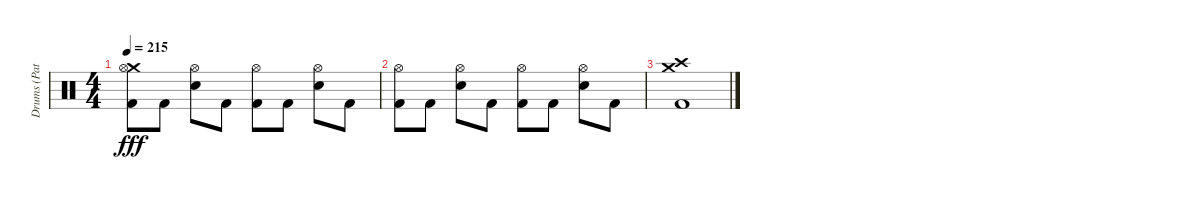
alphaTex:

\track ("Drums (Pat Thetic)" "Drums (Pat") {instrument percussion}
\staff {score}
\articulation defaults
\ts (4 4)
\tempo 215
\clef neutral
\ks c
("Crash medium (hit)" "Hi-Hat (open)" "Kick (hit) 2").8{dy fff} "Kick (hit) 2".8 ("Hi-Hat (open)" "Snare (hit) 2").8 "Kick (hit) 2".8 ("Hi-Hat (open)" "Kick (hit) 2").8 "Kick (hit) 2".8 ("Hi-Hat (open)" "Snare (hit) 2").8 "Kick (hit) 2".8 |
("Hi-Hat (open)" "Kick (hit) 2").8 "Kick (hit) 2".8 ("Hi-Hat (open)" "Snare (hit) 2").8 "Kick (hit) 2".8 ("Hi-Hat (open)" "Kick (hit) 2").8 "Kick (hit) 2".8 ("Hi-Hat (open)" "Snare (hit) 2").8 "Kick (hit) 2".8 |
("Crash medium (hit)" "Crash high (hit)" "Kick (hit) 2").1
